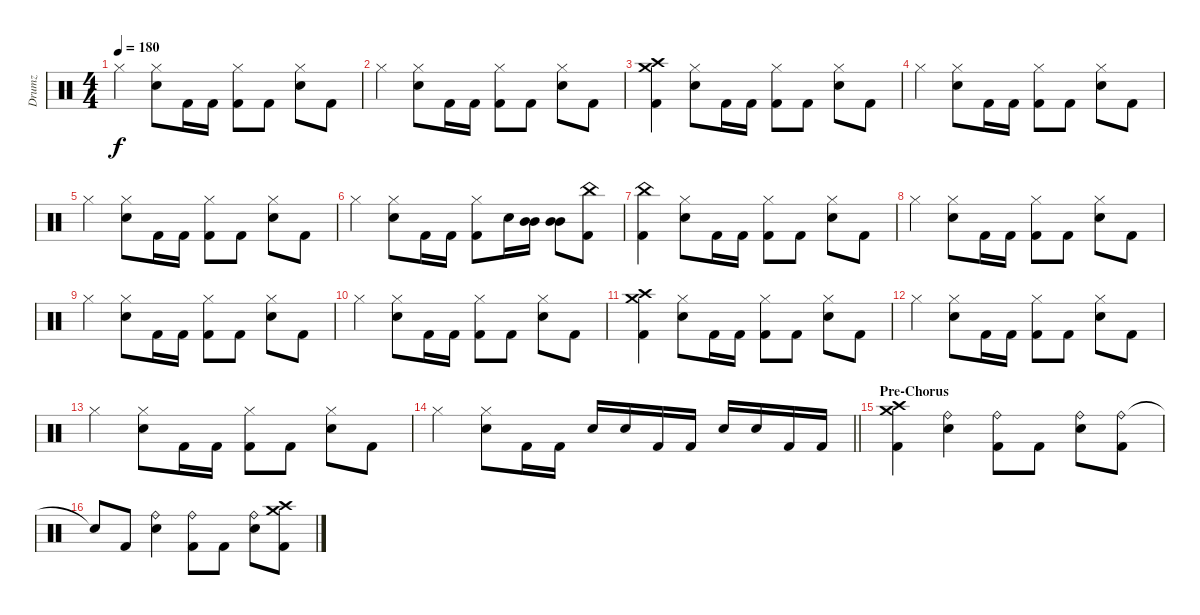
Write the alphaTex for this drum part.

\track ("Drumz" "Drumz") {instrument percussion}
\staff {score}
\articulation defaults
\ts (4 4)
\tempo 180
\clef neutral
\ks c "Hi-Hat (closed)".4{dy f}
("Hi-Hat (closed)" "Electric Snare (hit)").8 "Kick (hit) 2".16 "Kick (hit) 2".16 ("Hi-Hat (closed)" "Kick (hit) 2").8 "Kick (hit) 2".8 ("Hi-Hat (closed)" "Electric Snare (hit)").8 "Kick (hit) 2".8 |
"Hi-Hat (closed)".4 ("Hi-Hat (closed)" "Electric Snare (hit)").8 "Kick (hit) 2".16 "Kick (hit) 2".16 ("Hi-Hat (closed)" "Kick (hit) 2").8 "Kick (hit) 2".8 ("Hi-Hat (closed)" "Electric Snare (hit)").8 "Kick (hit) 2".8 |
("Crash medium (hit)" "Crash high (hit)" "Kick (hit) 2").4 ("Hi-Hat (closed)" "Electric Snare (hit)").8 "Kick (hit) 2".16 "Kick (hit) 2".16 ("Hi-Hat (closed)" "Kick (hit) 2").8 "Kick (hit) 2".8 ("Hi-Hat (closed)" "Electric Snare (hit)").8 "Kick (hit) 2".8 |
"Hi-Hat (closed)".4 ("Hi-Hat (closed)" "Electric Snare (hit)").8 "Kick (hit) 2".16 "Kick (hit) 2".16 ("Hi-Hat (closed)" "Kick (hit) 2").8 "Kick (hit) 2".8 ("Hi-Hat (closed)" "Electric Snare (hit)").8 "Kick (hit) 2".8 |
"Hi-Hat (closed)".4 ("Hi-Hat (closed)" "Electric Snare (hit)").8 "Kick (hit) 2".16 "Kick (hit) 2".16 ("Hi-Hat (closed)" "Kick (hit) 2").8 "Kick (hit) 2".8 ("Hi-Hat (closed)" "Electric Snare (hit)").8 "Kick (hit) 2".8 |
"Hi-Hat (closed)".4 ("Hi-Hat (closed)" "Electric Snare (hit)").8 "Kick (hit) 2".16 "Kick (hit) 2".16 ("Hi-Hat (closed)" "Kick (hit) 2").8 "Electric Snare (hit)".16 ("Mid Tom (hit)" "Mid Tom (hit)").16 ("Mid Tom (hit)" "Mid Tom (hit)").8 ("China (hit)" "Kick (hit) 2").8 |
("China (hit)" "Kick (hit) 2").4 ("Hi-Hat (closed)" "Electric Snare (hit)").8 "Kick (hit) 2".16 "Kick (hit) 2".16 ("Hi-Hat (closed)" "Kick (hit) 2").8 "Kick (hit) 2".8 ("Hi-Hat (closed)" "Electric Snare (hit)").8 "Kick (hit) 2".8 |
"Hi-Hat (closed)".4 ("Hi-Hat (closed)" "Electric Snare (hit)").8 "Kick (hit) 2".16 "Kick (hit) 2".16 ("Hi-Hat (closed)" "Kick (hit) 2").8 "Kick (hit) 2".8 ("Hi-Hat (closed)" "Electric Snare (hit)").8 "Kick (hit) 2".8 |
"Hi-Hat (closed)".4 ("Hi-Hat (closed)" "Electric Snare (hit)").8 "Kick (hit) 2".16 "Kick (hit) 2".16 ("Hi-Hat (closed)" "Kick (hit) 2").8 "Kick (hit) 2".8 ("Hi-Hat (closed)" "Electric Snare (hit)").8 "Kick (hit) 2".8 |
"Hi-Hat (closed)".4 ("Hi-Hat (closed)" "Electric Snare (hit)").8 "Kick (hit) 2".16 "Kick (hit) 2".16 ("Hi-Hat (closed)" "Kick (hit) 2").8 "Kick (hit) 2".8 ("Hi-Hat (closed)" "Electric Snare (hit)").8 "Kick (hit) 2".8 |
("Crash medium (hit)" "Crash high (hit)" "Kick (hit) 2").4 ("Hi-Hat (closed)" "Electric Snare (hit)").8 "Kick (hit) 2".16 "Kick (hit) 2".16 ("Hi-Hat (closed)" "Kick (hit) 2").8 "Kick (hit) 2".8 ("Hi-Hat (closed)" "Electric Snare (hit)").8 "Kick (hit) 2".8 |
"Hi-Hat (closed)".4 ("Hi-Hat (closed)" "Electric Snare (hit)").8 "Kick (hit) 2".16 "Kick (hit) 2".16 ("Hi-Hat (closed)" "Kick (hit) 2").8 "Kick (hit) 2".8 ("Hi-Hat (closed)" "Electric Snare (hit)").8 "Kick (hit) 2".8 |
"Hi-Hat (closed)".4 ("Hi-Hat (closed)" "Electric Snare (hit)").8 "Kick (hit) 2".16 "Kick (hit) 2".16 ("Hi-Hat (closed)" "Kick (hit) 2").8 "Kick (hit) 2".8 ("Hi-Hat (closed)" "Electric Snare (hit)").8 "Kick (hit) 2".8 |
\barLineRight lightlight "Hi-Hat (closed)".4
("Hi-Hat (closed)" "Electric Snare (hit)").8 "Kick (hit) 2".16 "Kick (hit) 2".16 "Electric Snare (hit)".16 "Electric Snare (hit)".16 "Kick (hit) 2".16 "Kick (hit) 2".16 "Electric Snare (hit)".16 "Electric Snare (hit)".16 "Kick (hit) 2".16 "Kick (hit) 2".16 |
\section ("" "Pre-Chorus")
("Crash medium (hit)" "Crash high (hit)" "Kick (hit) 2").4 ("Ride (bell)" "Electric Snare (hit)").4 ("Ride (bell)" "Kick (hit) 2").8 "Kick (hit) 2".8 ("Ride (bell)" "Electric Snare (hit)").8 ("Ride (bell)" "Kick (hit) 2").8 |
"Snare (hit)"{t}.8 "Kick (hit) 2".8 ("Ride (bell)" "Electric Snare (hit)").4 ("Ride (bell)" "Kick (hit) 2").8 "Kick (hit) 2".8 ("Ride (bell)" "Electric Snare (hit)").8 ("Crash medium (hit)" "Crash high (hit)" "Kick (hit) 2").8
